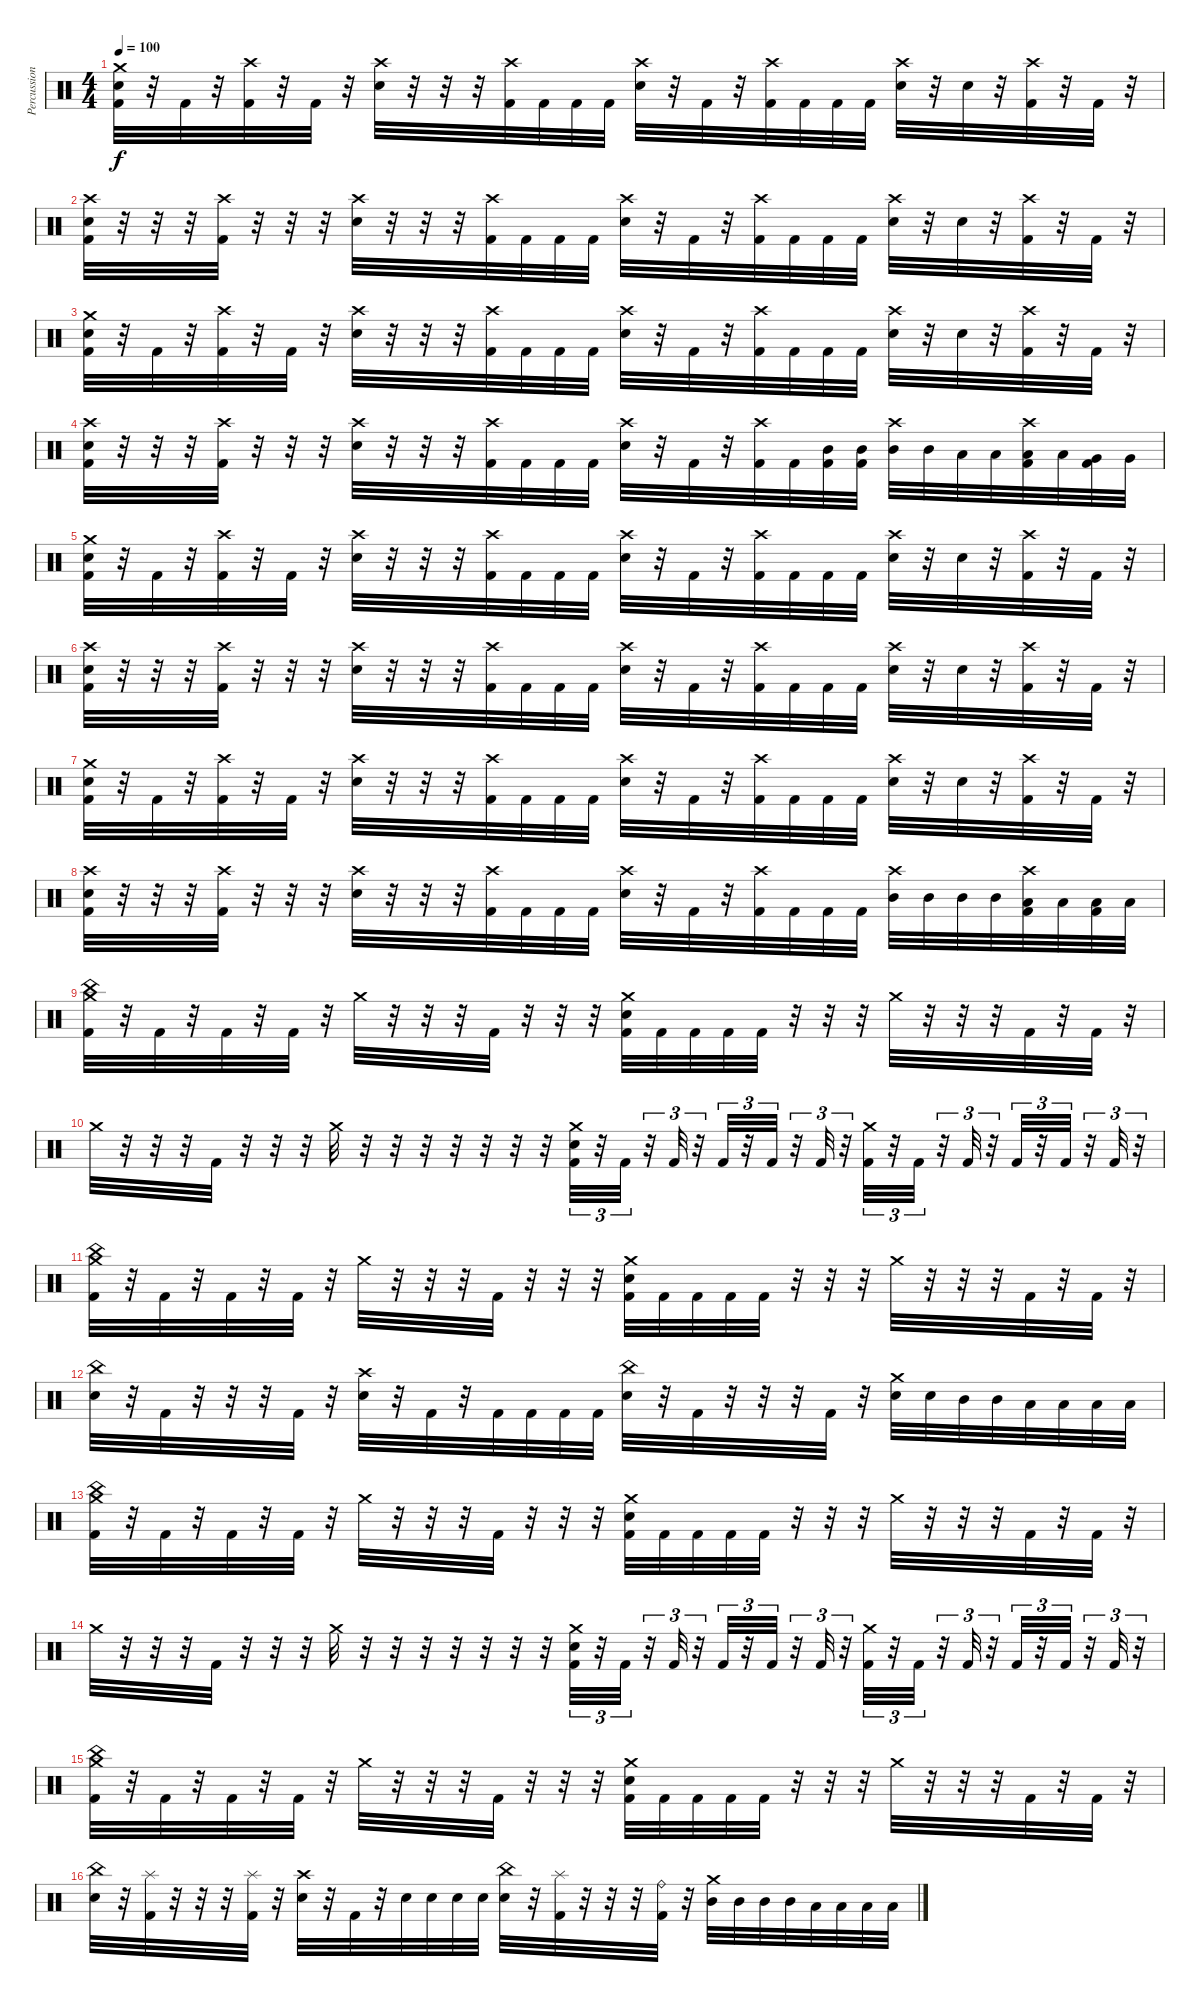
\track ("Percussion" "Percussion") {instrument percussion}
\staff {score}
\articulation defaults
\ts (4 4)
\tempo 100
\clef neutral
\ks c
("Crash medium (hit)" "Electric Snare (hit)" "Kick (hit) 2").32{dy f} r.32 "Kick (hit) 2".32 r.32 ("Crash high (hit)" "Kick (hit) 2").32 r.32 "Kick (hit) 2".32 r.32 ("Crash high (hit)" "Electric Snare (hit)").32 r.32 r.32 r.32 ("Crash high (hit)" "Kick (hit) 2").32 "Kick (hit) 2".32 "Kick (hit) 2".32 "Kick (hit) 2".32 ("Crash high (hit)" "Electric Snare (hit)").32 r.32 "Kick (hit) 2".32 r.32 ("Crash high (hit)" "Kick (hit) 2").32 "Kick (hit) 2".32 "Kick (hit) 2".32 "Kick (hit) 2".32 ("Crash high (hit)" "Electric Snare (hit)").32 r.32 "Electric Snare (hit)".32 r.32 ("Crash high (hit)" "Kick (hit) 2").32 r.32 "Kick (hit) 2".32 r.32 |
("Crash high (hit)" "Electric Snare (hit)" "Kick (hit) 2").32 r.32 r.32 r.32 ("Crash high (hit)" "Kick (hit) 2").32 r.32 r.32 r.32 ("Crash high (hit)" "Electric Snare (hit)").32 r.32 r.32 r.32 ("Crash high (hit)" "Kick (hit) 2").32 "Kick (hit) 2".32 "Kick (hit) 2".32 "Kick (hit) 2".32 ("Crash high (hit)" "Electric Snare (hit)").32 r.32 "Kick (hit) 2".32 r.32 ("Crash high (hit)" "Kick (hit) 2").32 "Kick (hit) 2".32 "Kick (hit) 2".32 "Kick (hit) 2".32 ("Crash high (hit)" "Electric Snare (hit)").32 r.32 "Electric Snare (hit)".32 r.32 ("Crash high (hit)" "Kick (hit) 2").32 r.32 "Kick (hit) 2".32 r.32 |
("Crash medium (hit)" "Electric Snare (hit)" "Kick (hit) 2").32 r.32 "Kick (hit) 2".32 r.32 ("Crash high (hit)" "Kick (hit) 2").32 r.32 "Kick (hit) 2".32 r.32 ("Crash high (hit)" "Electric Snare (hit)").32 r.32 r.32 r.32 ("Crash high (hit)" "Kick (hit) 2").32 "Kick (hit) 2".32 "Kick (hit) 2".32 "Kick (hit) 2".32 ("Crash high (hit)" "Electric Snare (hit)").32 r.32 "Kick (hit) 2".32 r.32 ("Crash high (hit)" "Kick (hit) 2").32 "Kick (hit) 2".32 "Kick (hit) 2".32 "Kick (hit) 2".32 ("Crash high (hit)" "Electric Snare (hit)").32 r.32 "Electric Snare (hit)".32 r.32 ("Crash high (hit)" "Kick (hit) 2").32 r.32 "Kick (hit) 2".32 r.32 |
("Crash high (hit)" "Electric Snare (hit)" "Kick (hit) 2").32 r.32 r.32 r.32 ("Crash high (hit)" "Kick (hit) 2").32 r.32 r.32 r.32 ("Crash high (hit)" "Electric Snare (hit)").32 r.32 r.32 r.32 ("Crash high (hit)" "Kick (hit) 2").32 "Kick (hit) 2".32 "Kick (hit) 2".32 "Kick (hit) 2".32 ("Crash high (hit)" "Electric Snare (hit)").32 r.32 "Kick (hit) 2".32 r.32 ("Crash high (hit)" "Kick (hit) 2").32 "Kick (hit) 2".32 ("Mid Tom (hit)" "Kick (hit) 2").32 ("Mid Tom (hit)" "Kick (hit) 2").32 ("Crash high (hit)" "Mid Tom (hit)").32 "Mid Tom (hit)".32 "Low Tom (hit)".32 "Low Tom (hit)".32 ("Crash high (hit)" "Low Tom (hit)" "Kick (hit) 2").32 "Low Tom (hit)".32 ("Very Low Tom (hit)" "Kick (hit) 2").32 "Very Low Tom (hit)".32 |
("Crash medium (hit)" "Electric Snare (hit)" "Kick (hit) 2").32 r.32 "Kick (hit) 2".32 r.32 ("Crash high (hit)" "Kick (hit) 2").32 r.32 "Kick (hit) 2".32 r.32 ("Crash high (hit)" "Electric Snare (hit)").32 r.32 r.32 r.32 ("Crash high (hit)" "Kick (hit) 2").32 "Kick (hit) 2".32 "Kick (hit) 2".32 "Kick (hit) 2".32 ("Crash high (hit)" "Electric Snare (hit)").32 r.32 "Kick (hit) 2".32 r.32 ("Crash high (hit)" "Kick (hit) 2").32 "Kick (hit) 2".32 "Kick (hit) 2".32 "Kick (hit) 2".32 ("Crash high (hit)" "Electric Snare (hit)").32 r.32 "Electric Snare (hit)".32 r.32 ("Crash high (hit)" "Kick (hit) 2").32 r.32 "Kick (hit) 2".32 r.32 |
("Crash high (hit)" "Electric Snare (hit)" "Kick (hit) 2").32 r.32 r.32 r.32 ("Crash high (hit)" "Kick (hit) 2").32 r.32 r.32 r.32 ("Crash high (hit)" "Electric Snare (hit)").32 r.32 r.32 r.32 ("Crash high (hit)" "Kick (hit) 2").32 "Kick (hit) 2".32 "Kick (hit) 2".32 "Kick (hit) 2".32 ("Crash high (hit)" "Electric Snare (hit)").32 r.32 "Kick (hit) 2".32 r.32 ("Crash high (hit)" "Kick (hit) 2").32 "Kick (hit) 2".32 "Kick (hit) 2".32 "Kick (hit) 2".32 ("Crash high (hit)" "Electric Snare (hit)").32 r.32 "Electric Snare (hit)".32 r.32 ("Crash high (hit)" "Kick (hit) 2").32 r.32 "Kick (hit) 2".32 r.32 |
("Crash medium (hit)" "Electric Snare (hit)" "Kick (hit) 2").32 r.32 "Kick (hit) 2".32 r.32 ("Crash high (hit)" "Kick (hit) 2").32 r.32 "Kick (hit) 2".32 r.32 ("Crash high (hit)" "Electric Snare (hit)").32 r.32 r.32 r.32 ("Crash high (hit)" "Kick (hit) 2").32 "Kick (hit) 2".32 "Kick (hit) 2".32 "Kick (hit) 2".32 ("Crash high (hit)" "Electric Snare (hit)").32 r.32 "Kick (hit) 2".32 r.32 ("Crash high (hit)" "Kick (hit) 2").32 "Kick (hit) 2".32 "Kick (hit) 2".32 "Kick (hit) 2".32 ("Crash high (hit)" "Electric Snare (hit)").32 r.32 "Electric Snare (hit)".32 r.32 ("Crash high (hit)" "Kick (hit) 2").32 r.32 "Kick (hit) 2".32 r.32 |
("Crash high (hit)" "Electric Snare (hit)" "Kick (hit) 2").32 r.32 r.32 r.32 ("Crash high (hit)" "Kick (hit) 2").32 r.32 r.32 r.32 ("Crash high (hit)" "Electric Snare (hit)").32 r.32 r.32 r.32 ("Crash high (hit)" "Kick (hit) 2").32 "Kick (hit) 2".32 "Kick (hit) 2".32 "Kick (hit) 2".32 ("Crash high (hit)" "Electric Snare (hit)").32 r.32 "Kick (hit) 2".32 r.32 ("Crash high (hit)" "Kick (hit) 2").32 "Kick (hit) 2".32 "Kick (hit) 2".32 "Kick (hit) 2".32 ("Crash high (hit)" "Mid Tom (hit)").32 "Mid Tom (hit)".32 "Mid Tom (hit)".32 "Mid Tom (hit)".32 ("Crash high (hit)" "Low Tom (hit)" "Kick (hit) 2").32 "Low Tom (hit)".32 ("Low Tom (hit)" "Kick (hit) 2").32 "Low Tom (hit)".32 |
("Crash medium (hit)" "China (hit)" "Kick (hit) 2").32 r.32 "Kick (hit) 2".32 r.32 "Kick (hit) 2".32 r.32 "Kick (hit) 2".32 r.32 "Crash medium (hit)".32 r.32 r.32 r.32 "Kick (hit) 2".32 r.32 r.32 r.32 ("Crash medium (hit)" "Electric Snare (hit)" "Kick (hit) 2").32 "Kick (hit) 2".32 "Kick (hit) 2".32 "Kick (hit) 2".32 "Kick (hit) 2".32 r.32 r.32 r.32 "Crash medium (hit)".32 r.32 r.32 r.32 "Kick (hit) 2".32 r.32 "Kick (hit) 2".32 r.32 |
"Crash medium (hit)".32 r.32 r.32 r.32 "Kick (hit) 2".32 r.32 r.32 r.32 "Crash medium (hit)".32 r.32 r.32 r.32 r.32 r.32 r.32 r.32 ("Crash medium (hit)" "Electric Snare (hit)" "Kick (hit) 2").32{tu (3 2)} r.32{tu (3 2)} "Kick (hit) 2".32{tu (3 2)} r.32{tu (3 2)} "Kick (hit) 2".32{tu (3 2)} r.32{tu (3 2)} "Kick (hit) 2".32{tu (3 2)} r.32{tu (3 2)} "Kick (hit) 2".32{tu (3 2)} r.32{tu (3 2)} "Kick (hit) 2".32{tu (3 2)} r.32{tu (3 2)} ("Crash medium (hit)" "Kick (hit) 2").32{tu (3 2)} r.32{tu (3 2)} "Kick (hit) 2".32{tu (3 2)} r.32{tu (3 2)} "Kick (hit) 2".32{tu (3 2)} r.32{tu (3 2)} "Kick (hit) 2".32{tu (3 2)} r.32{tu (3 2)} "Kick (hit) 2".32{tu (3 2)} r.32{tu (3 2)} "Kick (hit) 2".32{tu (3 2)} r.32{tu (3 2)} |
("Crash medium (hit)" "China (hit)" "Kick (hit) 2").32 r.32 "Kick (hit) 2".32 r.32 "Kick (hit) 2".32 r.32 "Kick (hit) 2".32 r.32 "Crash medium (hit)".32 r.32 r.32 r.32 "Kick (hit) 2".32 r.32 r.32 r.32 ("Crash medium (hit)" "Electric Snare (hit)" "Kick (hit) 2").32 "Kick (hit) 2".32 "Kick (hit) 2".32 "Kick (hit) 2".32 "Kick (hit) 2".32 r.32 r.32 r.32 "Crash medium (hit)".32 r.32 r.32 r.32 "Kick (hit) 2".32 r.32 "Kick (hit) 2".32 r.32 |
("China (hit)" "Electric Snare (hit)").32 r.32 "Kick (hit) 2".32 r.32 r.32 r.32 "Kick (hit) 2".32 r.32 ("Crash high (hit)" "Electric Snare (hit)").32 r.32 "Kick (hit) 2".32 r.32 "Kick (hit) 2".32 "Kick (hit) 2".32 "Kick (hit) 2".32 "Kick (hit) 2".32 ("China (hit)" "Electric Snare (hit)").32 r.32 "Kick (hit) 2".32 r.32 r.32 r.32 "Kick (hit) 2".32 r.32 ("Crash medium (hit)" "Electric Snare (hit)").32 "Electric Snare (hit)".32 "Mid Tom (hit)".32 "Mid Tom (hit)".32 "Low Tom (hit)".32 "Low Tom (hit)".32 "Low Floor Tom (hit)".32 "Low Floor Tom (hit)".32 |
("Crash medium (hit)" "China (hit)" "Kick (hit) 2").32 r.32 "Kick (hit) 2".32 r.32 "Kick (hit) 2".32 r.32 "Kick (hit) 2".32 r.32 "Crash medium (hit)".32 r.32 r.32 r.32 "Kick (hit) 2".32 r.32 r.32 r.32 ("Crash medium (hit)" "Electric Snare (hit)" "Kick (hit) 2").32 "Kick (hit) 2".32 "Kick (hit) 2".32 "Kick (hit) 2".32 "Kick (hit) 2".32 r.32 r.32 r.32 "Crash medium (hit)".32 r.32 r.32 r.32 "Kick (hit) 2".32 r.32 "Kick (hit) 2".32 r.32 |
"Crash medium (hit)".32 r.32 r.32 r.32 "Kick (hit) 2".32 r.32 r.32 r.32 "Crash medium (hit)".32 r.32 r.32 r.32 r.32 r.32 r.32 r.32 ("Crash medium (hit)" "Electric Snare (hit)" "Kick (hit) 2").32{tu (3 2)} r.32{tu (3 2)} "Kick (hit) 2".32{tu (3 2)} r.32{tu (3 2)} "Kick (hit) 2".32{tu (3 2)} r.32{tu (3 2)} "Kick (hit) 2".32{tu (3 2)} r.32{tu (3 2)} "Kick (hit) 2".32{tu (3 2)} r.32{tu (3 2)} "Kick (hit) 2".32{tu (3 2)} r.32{tu (3 2)} ("Crash medium (hit)" "Kick (hit) 2").32{tu (3 2)} r.32{tu (3 2)} "Kick (hit) 2".32{tu (3 2)} r.32{tu (3 2)} "Kick (hit) 2".32{tu (3 2)} r.32{tu (3 2)} "Kick (hit) 2".32{tu (3 2)} r.32{tu (3 2)} "Kick (hit) 2".32{tu (3 2)} r.32{tu (3 2)} "Kick (hit) 2".32{tu (3 2)} r.32{tu (3 2)} |
("Crash medium (hit)" "China (hit)" "Kick (hit) 2").32 r.32 "Kick (hit) 2".32 r.32 "Kick (hit) 2".32 r.32 "Kick (hit) 2".32 r.32 "Crash medium (hit)".32 r.32 r.32 r.32 "Kick (hit) 2".32 r.32 r.32 r.32 ("Crash medium (hit)" "Electric Snare (hit)" "Kick (hit) 2").32 "Kick (hit) 2".32 "Kick (hit) 2".32 "Kick (hit) 2".32 "Kick (hit) 2".32 r.32 r.32 r.32 "Crash medium (hit)".32 r.32 r.32 r.32 "Kick (hit) 2".32 r.32 "Kick (hit) 2".32 r.32 |
("China (hit)" "Electric Snare (hit)").32 r.32 ("Splash (hit)" "Kick (hit) 2").32 r.32 r.32 r.32 ("Splash (hit)" "Kick (hit) 2").32 r.32 ("Crash high (hit)" "Electric Snare (hit)").32 r.32 "Kick (hit) 2".32 r.32 "Electric Snare (hit)".32 "Electric Snare (hit)".32 "Electric Snare (hit)".32 "Electric Snare (hit)".32 ("China (hit)" "Electric Snare (hit)").32 r.32 ("Splash (hit)" "Kick (hit) 2").32 r.32 r.32 r.32 ("Ride (bell)" "Kick (hit) 2").32 r.32 ("Crash medium (hit)" "Mid Tom (hit)").32 "Mid Tom (hit)".32 "Mid Tom (hit)".32 "Mid Tom (hit)".32 "Low Tom (hit)".32 "Low Tom (hit)".32 "Low Tom (hit)".32 "Low Tom (hit)".32
